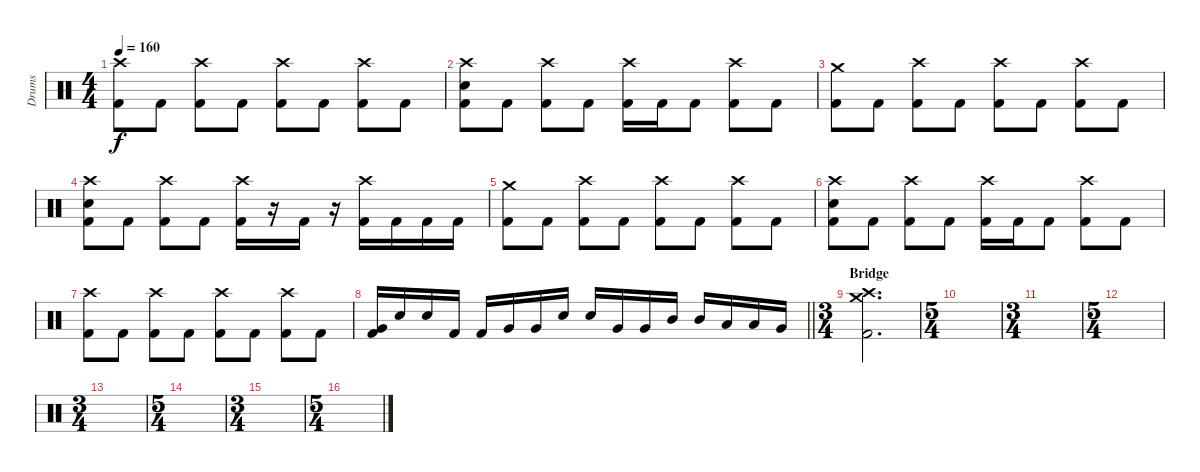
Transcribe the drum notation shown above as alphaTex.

\track ("Drums" "Drums") {instrument percussion}
\staff {score}
\articulation defaults
\ts (4 4)
\tempo 160
\clef neutral
\ks c
("Crash high (hit)" "Kick (hit) 2").8{dy f} "Kick (hit) 2".8 ("Crash high (hit)" "Kick (hit) 2").8 "Kick (hit) 2".8 ("Crash high (hit)" "Kick (hit) 2").8 "Kick (hit) 2".8 ("Crash high (hit)" "Kick (hit) 2").8 "Kick (hit) 2".8 |
("Crash high (hit)" "Electric Snare (hit)" "Kick (hit) 2").8 "Kick (hit) 2".8 ("Crash high (hit)" "Kick (hit) 2").8 "Kick (hit) 2".8 ("Crash high (hit)" "Kick (hit) 2").16 "Kick (hit) 2".16 "Kick (hit) 2".8 ("Crash high (hit)" "Kick (hit) 2").8 "Kick (hit) 2".8 |
("Crash medium (hit)" "Kick (hit) 2").8 "Kick (hit) 2".8 ("Crash high (hit)" "Kick (hit) 2").8 "Kick (hit) 2".8 ("Crash high (hit)" "Kick (hit) 2").8 "Kick (hit) 2".8 ("Crash high (hit)" "Kick (hit) 2").8 "Kick (hit) 2".8 |
("Crash high (hit)" "Electric Snare (hit)" "Kick (hit) 2").8 "Kick (hit) 2".8 ("Crash high (hit)" "Kick (hit) 2").8 "Kick (hit) 2".8 ("Crash high (hit)" "Kick (hit) 2").16 r.16 "Kick (hit) 2".16 r.16 ("Crash high (hit)" "Kick (hit) 2").16 "Kick (hit) 2".16 "Kick (hit) 2".16 "Kick (hit) 2".16 |
("Crash medium (hit)" "Kick (hit) 2").8 "Kick (hit) 2".8 ("Crash high (hit)" "Kick (hit) 2").8 "Kick (hit) 2".8 ("Crash high (hit)" "Kick (hit) 2").8 "Kick (hit) 2".8 ("Crash high (hit)" "Kick (hit) 2").8 "Kick (hit) 2".8 |
("Crash high (hit)" "Electric Snare (hit)" "Kick (hit) 2").8 "Kick (hit) 2".8 ("Crash high (hit)" "Kick (hit) 2").8 "Kick (hit) 2".8 ("Crash high (hit)" "Kick (hit) 2").16 "Kick (hit) 2".16 "Kick (hit) 2".8 ("Crash high (hit)" "Kick (hit) 2").8 "Kick (hit) 2".8 |
("Crash high (hit)" "Kick (hit) 2").8 "Kick (hit) 2".8 ("Crash high (hit)" "Kick (hit) 2").8 "Kick (hit) 2".8 ("Crash high (hit)" "Kick (hit) 2").8 "Kick (hit) 2".8 ("Crash high (hit)" "Kick (hit) 2").8 "Kick (hit) 2".8 |
\barLineRight lightlight
("Very Low Tom (hit)" "Kick (hit) 2").16 "Electric Snare (hit)".16 "Electric Snare (hit)".16 "Kick (hit) 2".16 "Kick (hit) 2".16 "Very Low Tom (hit)".16 "Very Low Tom (hit)".16 "Electric Snare (hit)".16 "Electric Snare (hit)".16 "Very Low Tom (hit)".16 "Very Low Tom (hit)".16 "Mid Tom (hit)".16 "Mid Tom (hit)".16 "Low Tom (hit)".16 "Low Tom (hit)".16 "Very Low Tom (hit)".16 |
\ts (3 4)
\section ("" "Bridge")
("Crash medium (hit)" "Crash high (hit)" "Kick (hit) 2").2{d} |
\ts (5 4)
|
\ts (3 4)
|
\ts (5 4)
|
\ts (3 4)
|
\ts (5 4)
|
\ts (3 4)
|
\ts (5 4)
